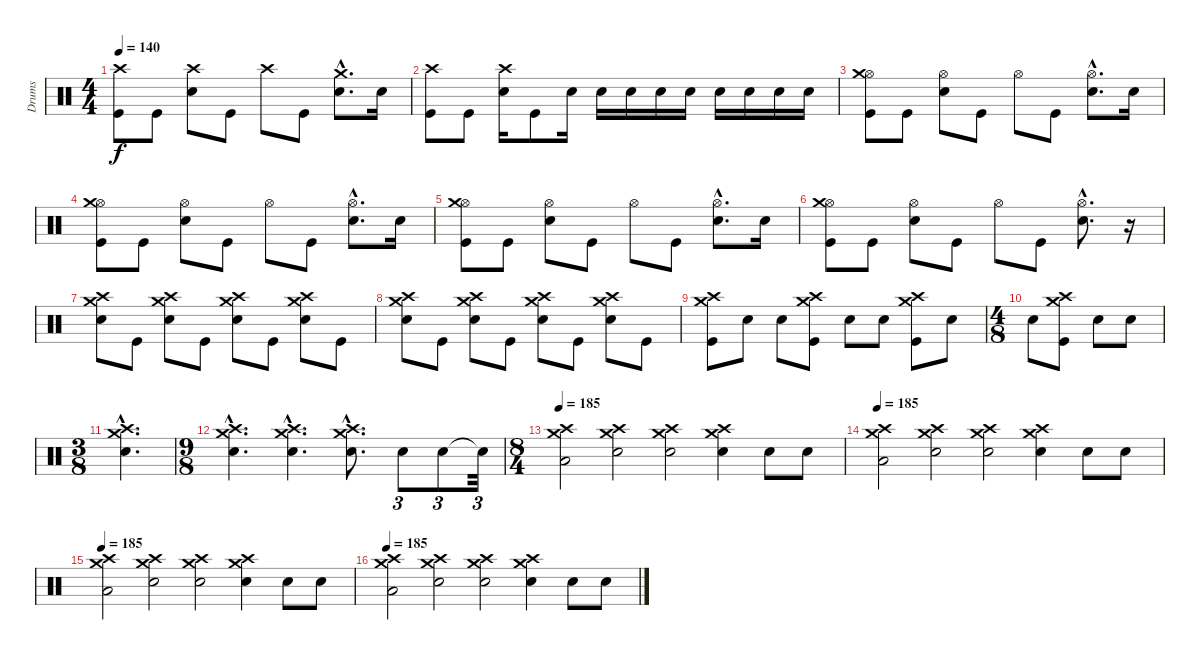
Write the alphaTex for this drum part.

\track ("Drums" "Drums") {instrument percussion}
\staff {score}
\articulation defaults
\ts (4 4)
\tempo 140
\clef neutral
\ks c
("Crash high (hit)" "Kick (hit)").8{dy f} "Kick (hit)".8 ("Crash high (hit)" "Electric Snare (hit)").8 "Kick (hit)".8 "Crash high (hit)".8 "Kick (hit)".8 ("Crash medium (hit)"{hac} "Electric Snare (hit)"{hac}).8{d} "Electric Snare (hit)".16 |
("Crash high (hit)" "Kick (hit)").8 "Kick (hit)".8 ("Crash high (hit)" "Electric Snare (hit)").16 "Kick (hit)".8 "Electric Snare (hit)".16 "Electric Snare (hit)".16 "Electric Snare (hit)".16 "Electric Snare (hit)".16 "Electric Snare (hit)".16 "Electric Snare (hit)".16 "Electric Snare (hit)".16 "Electric Snare (hit)".16 "Electric Snare (hit)".16 |
("Hi-Hat (open)" "Crash medium (hit)" "Kick (hit)").8 "Kick (hit)".8 ("Hi-Hat (open)" "Electric Snare (hit)").8 "Kick (hit)".8 "Hi-Hat (open)".8 "Kick (hit)".8 ("Hi-Hat (open)"{hac} "Electric Snare (hit)"{hac}).8{d} "Electric Snare (hit)".16 |
("Hi-Hat (open)" "Crash medium (hit)" "Kick (hit)").8 "Kick (hit)".8 ("Hi-Hat (open)" "Electric Snare (hit)").8 "Kick (hit)".8 "Hi-Hat (open)".8 "Kick (hit)".8 ("Hi-Hat (open)"{hac} "Electric Snare (hit)"{hac}).8{d} "Electric Snare (hit)".16 |
("Hi-Hat (open)" "Crash medium (hit)" "Kick (hit)").8 "Kick (hit)".8 ("Hi-Hat (open)" "Electric Snare (hit)").8 "Kick (hit)".8 "Hi-Hat (open)".8 "Kick (hit)".8 ("Hi-Hat (open)"{hac} "Electric Snare (hit)"{hac}).8{d} "Electric Snare (hit)".16 |
("Hi-Hat (open)" "Crash medium (hit)" "Kick (hit)").8 "Kick (hit)".8 ("Hi-Hat (open)" "Electric Snare (hit)").8 "Kick (hit)".8 "Hi-Hat (open)".8 "Kick (hit)".8 ("Hi-Hat (open)"{hac} "Electric Snare (hit)"{hac}).8{d} r.16 |
("Crash high (hit)" "Crash medium (hit)" "Electric Snare (hit)").8 "Kick (hit)".8 ("Crash high (hit)" "Crash medium (hit)" "Electric Snare (hit)").8 "Kick (hit)".8 ("Crash high (hit)" "Crash medium (hit)" "Electric Snare (hit)").8 "Kick (hit)".8 ("Crash high (hit)" "Crash medium (hit)" "Electric Snare (hit)").8 "Kick (hit)".8 |
("Crash high (hit)" "Crash medium (hit)" "Electric Snare (hit)").8 "Kick (hit)".8 ("Crash high (hit)" "Crash medium (hit)" "Electric Snare (hit)").8 "Kick (hit)".8 ("Crash high (hit)" "Crash medium (hit)" "Electric Snare (hit)").8 "Kick (hit)".8 ("Crash high (hit)" "Crash medium (hit)" "Electric Snare (hit)").8 "Kick (hit)".8 |
("Crash high (hit)" "Crash medium (hit)" "Kick (hit)").8 "Electric Snare (hit)".8 "Electric Snare (hit)".8 ("Crash high (hit)" "Crash medium (hit)" "Kick (hit)").8 "Electric Snare (hit)".8 "Electric Snare (hit)".8 ("Crash high (hit)" "Crash medium (hit)" "Kick (hit)").8 "Electric Snare (hit)".8 |
\ts (4 8)
"Electric Snare (hit)".8 ("Crash high (hit)" "Crash medium (hit)" "Kick (hit)").8 "Electric Snare (hit)".8 "Electric Snare (hit)".8 |
\ts (3 8)
("Crash high (hit)"{hac} "Electric Snare (hit)"{hac} "Crash medium (hit)"{hac}).4{d} |
\ts (9 8)
("Crash high (hit)"{hac} "Electric Snare (hit)"{hac} "Crash medium (hit)"{hac}).4{d} ("Crash high (hit)"{hac} "Electric Snare (hit)"{hac} "Crash medium (hit)"{hac}).4{d} ("Crash high (hit)"{hac} "Electric Snare (hit)"{hac} "Crash medium (hit)"{hac}).8{d} "Electric Snare (hit)".8{tu (3 2)} "Electric Snare (hit)".8{tu (3 2)} "Snare (hit)"{t}.32{tu (3 2)} |
\ts (8 4)
\tempo 185
("Crash high (hit)" "Low Floor Tom (hit)" "Crash medium (hit)").2 ("Crash high (hit)" "Electric Snare (hit)" "Crash medium (hit)").2 ("Crash high (hit)" "Electric Snare (hit)" "Crash medium (hit)").2 ("Crash high (hit)" "Electric Snare (hit)" "Crash medium (hit)").4 "Electric Snare (hit)".8 "Electric Snare (hit)".8 |
\tempo 185
("Crash high (hit)" "Low Floor Tom (hit)" "Crash medium (hit)").2 ("Crash high (hit)" "Electric Snare (hit)" "Crash medium (hit)").2 ("Crash high (hit)" "Electric Snare (hit)" "Crash medium (hit)").2 ("Crash high (hit)" "Electric Snare (hit)" "Crash medium (hit)").4 "Electric Snare (hit)".8 "Electric Snare (hit)".8 |
\tempo 185
("Crash high (hit)" "Low Floor Tom (hit)" "Crash medium (hit)").2 ("Crash high (hit)" "Electric Snare (hit)" "Crash medium (hit)").2 ("Crash high (hit)" "Electric Snare (hit)" "Crash medium (hit)").2 ("Crash high (hit)" "Electric Snare (hit)" "Crash medium (hit)").4 "Electric Snare (hit)".8 "Electric Snare (hit)".8 |
\tempo 185
("Crash high (hit)" "Low Floor Tom (hit)" "Crash medium (hit)").2 ("Crash high (hit)" "Electric Snare (hit)" "Crash medium (hit)").2 ("Crash high (hit)" "Electric Snare (hit)" "Crash medium (hit)").2 ("Crash high (hit)" "Electric Snare (hit)" "Crash medium (hit)").4 "Electric Snare (hit)".8 "Electric Snare (hit)".8
